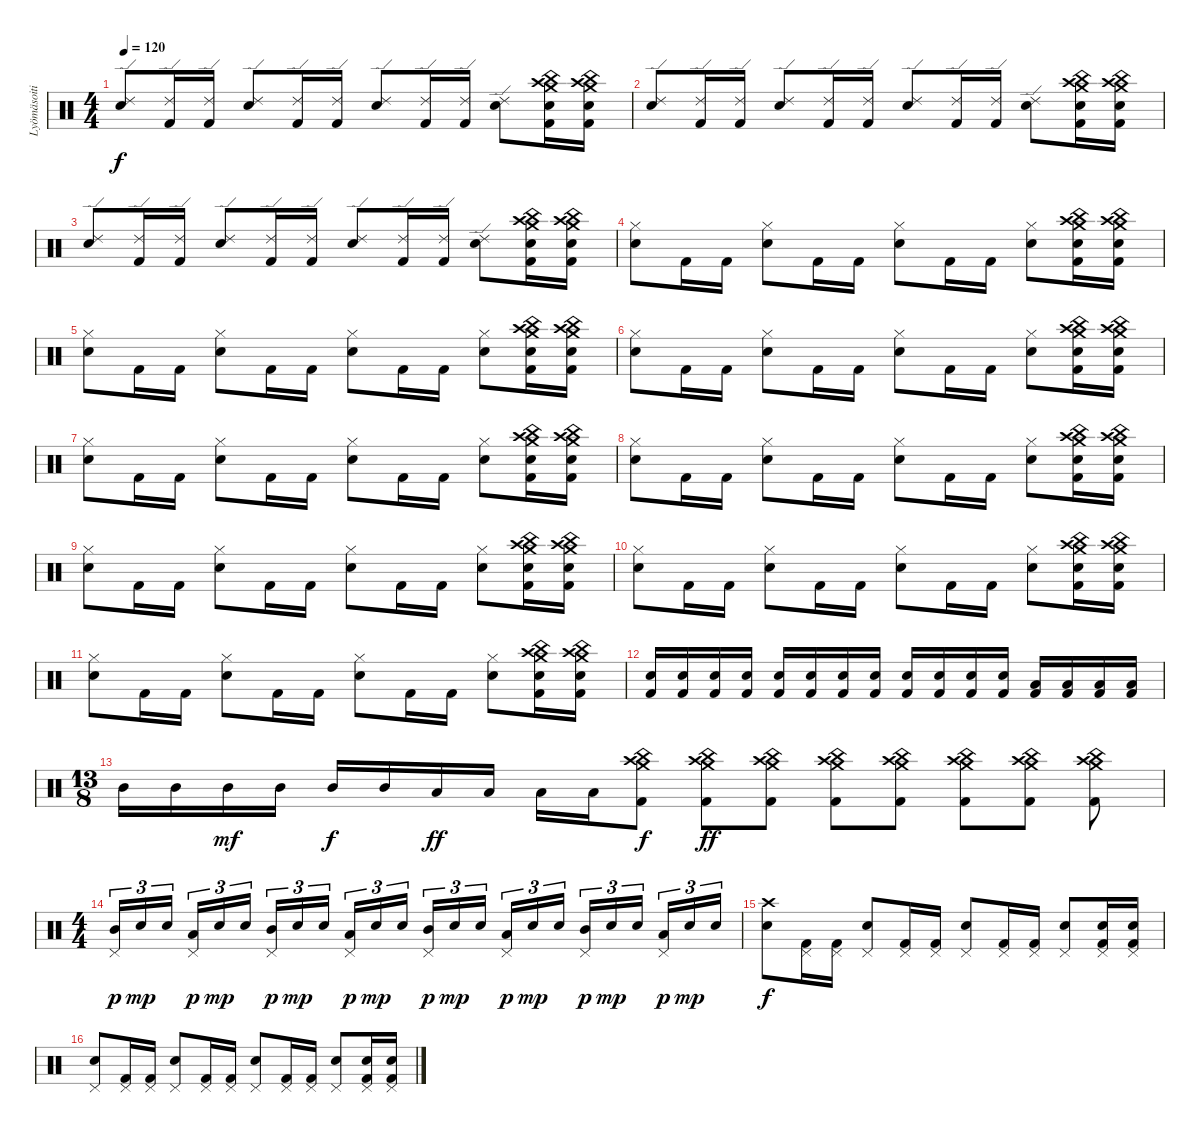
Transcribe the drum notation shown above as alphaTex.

\track ("Lyömäsoitin" "Lyömäsoiti") {instrument percussion}
\staff {score}
\articulation defaults
\ts (4 4)
\tempo 120
\clef neutral
\ks c
("Ride (edge) 2" "Snare (hit) 2").8{dy f} ("Ride (edge) 2" "Kick (hit) 2").16 ("Ride (edge) 2" "Kick (hit) 2").16 ("Ride (edge) 2" "Snare (hit) 2").8 ("Ride (edge) 2" "Kick (hit) 2").16 ("Ride (edge) 2" "Kick (hit) 2").16 ("Ride (edge) 2" "Snare (hit) 2").8 ("Ride (edge) 2" "Kick (hit) 2").16 ("Ride (edge) 2" "Kick (hit) 2").16 ("Ride (edge) 2" "Snare (hit) 2").8 ("Crash high (hit)" "Crash medium (hit)" "China (hit)" "Snare (hit) 2" "Kick (hit) 2").16 ("Crash high (hit)" "Crash medium (hit)" "China (hit)" "Snare (hit) 2" "Kick (hit) 2").16 |
("Ride (edge) 2" "Snare (hit) 2").8 ("Ride (edge) 2" "Kick (hit) 2").16 ("Ride (edge) 2" "Kick (hit) 2").16 ("Ride (edge) 2" "Snare (hit) 2").8 ("Ride (edge) 2" "Kick (hit) 2").16 ("Ride (edge) 2" "Kick (hit) 2").16 ("Ride (edge) 2" "Snare (hit) 2").8 ("Ride (edge) 2" "Kick (hit) 2").16 ("Ride (edge) 2" "Kick (hit) 2").16 ("Ride (edge) 2" "Snare (hit) 2").8 ("Crash high (hit)" "Crash medium (hit)" "China (hit)" "Snare (hit) 2" "Kick (hit) 2").16 ("Crash high (hit)" "Crash medium (hit)" "China (hit)" "Snare (hit) 2" "Kick (hit) 2").16 |
("Ride (edge) 2" "Snare (hit) 2").8 ("Ride (edge) 2" "Kick (hit) 2").16 ("Ride (edge) 2" "Kick (hit) 2").16 ("Ride (edge) 2" "Snare (hit) 2").8 ("Ride (edge) 2" "Kick (hit) 2").16 ("Ride (edge) 2" "Kick (hit) 2").16 ("Ride (edge) 2" "Snare (hit) 2").8 ("Ride (edge) 2" "Kick (hit) 2").16 ("Ride (edge) 2" "Kick (hit) 2").16 ("Ride (edge) 2" "Snare (hit) 2").8 ("Crash high (hit)" "Crash medium (hit)" "China (hit)" "Snare (hit) 2" "Kick (hit) 2").16 ("Crash high (hit)" "Crash medium (hit)" "China (hit)" "Snare (hit) 2" "Kick (hit) 2").16 |
("Hi-Hat (closed)" "Snare (hit) 2").8 "Kick (hit) 2".16 "Kick (hit) 2".16 ("Hi-Hat (closed)" "Snare (hit) 2").8 "Kick (hit) 2".16 "Kick (hit) 2".16 ("Hi-Hat (closed)" "Snare (hit) 2").8 "Kick (hit) 2".16 "Kick (hit) 2".16 ("Hi-Hat (closed)" "Snare (hit) 2").8 ("Crash high (hit)" "Crash medium (hit)" "China (hit)" "Snare (hit) 2" "Kick (hit) 2").16 ("Crash high (hit)" "Crash medium (hit)" "China (hit)" "Snare (hit) 2" "Kick (hit) 2").16 |
("Hi-Hat (closed)" "Snare (hit) 2").8 "Kick (hit) 2".16 "Kick (hit) 2".16 ("Hi-Hat (closed)" "Snare (hit) 2").8 "Kick (hit) 2".16 "Kick (hit) 2".16 ("Hi-Hat (closed)" "Snare (hit) 2").8 "Kick (hit) 2".16 "Kick (hit) 2".16 ("Hi-Hat (closed)" "Snare (hit) 2").8 ("Crash high (hit)" "Crash medium (hit)" "China (hit)" "Snare (hit) 2" "Kick (hit) 2").16 ("Crash high (hit)" "Crash medium (hit)" "China (hit)" "Snare (hit) 2" "Kick (hit) 2").16 |
("Hi-Hat (closed)" "Snare (hit) 2").8 "Kick (hit) 2".16 "Kick (hit) 2".16 ("Hi-Hat (closed)" "Snare (hit) 2").8 "Kick (hit) 2".16 "Kick (hit) 2".16 ("Hi-Hat (closed)" "Snare (hit) 2").8 "Kick (hit) 2".16 "Kick (hit) 2".16 ("Hi-Hat (closed)" "Snare (hit) 2").8 ("Crash high (hit)" "Crash medium (hit)" "China (hit)" "Snare (hit) 2" "Kick (hit) 2").16 ("Crash high (hit)" "Crash medium (hit)" "China (hit)" "Snare (hit) 2" "Kick (hit) 2").16 |
("Hi-Hat (closed)" "Snare (hit) 2").8 "Kick (hit) 2".16 "Kick (hit) 2".16 ("Hi-Hat (closed)" "Snare (hit) 2").8 "Kick (hit) 2".16 "Kick (hit) 2".16 ("Hi-Hat (closed)" "Snare (hit) 2").8 "Kick (hit) 2".16 "Kick (hit) 2".16 ("Hi-Hat (closed)" "Snare (hit) 2").8 ("Crash high (hit)" "Crash medium (hit)" "China (hit)" "Snare (hit) 2" "Kick (hit) 2").16 ("Crash high (hit)" "Crash medium (hit)" "China (hit)" "Snare (hit) 2" "Kick (hit) 2").16 |
("Hi-Hat (closed)" "Snare (hit) 2").8 "Kick (hit) 2".16 "Kick (hit) 2".16 ("Hi-Hat (closed)" "Snare (hit) 2").8 "Kick (hit) 2".16 "Kick (hit) 2".16 ("Hi-Hat (closed)" "Snare (hit) 2").8 "Kick (hit) 2".16 "Kick (hit) 2".16 ("Hi-Hat (closed)" "Snare (hit) 2").8 ("Crash high (hit)" "Crash medium (hit)" "China (hit)" "Snare (hit) 2" "Kick (hit) 2").16 ("Crash high (hit)" "Crash medium (hit)" "China (hit)" "Snare (hit) 2" "Kick (hit) 2").16 |
("Hi-Hat (closed)" "Snare (hit) 2").8 "Kick (hit) 2".16 "Kick (hit) 2".16 ("Hi-Hat (closed)" "Snare (hit) 2").8 "Kick (hit) 2".16 "Kick (hit) 2".16 ("Hi-Hat (closed)" "Snare (hit) 2").8 "Kick (hit) 2".16 "Kick (hit) 2".16 ("Hi-Hat (closed)" "Snare (hit) 2").8 ("Crash high (hit)" "Crash medium (hit)" "China (hit)" "Snare (hit) 2" "Kick (hit) 2").16 ("Crash high (hit)" "Crash medium (hit)" "China (hit)" "Snare (hit) 2" "Kick (hit) 2").16 |
("Hi-Hat (closed)" "Snare (hit) 2").8 "Kick (hit) 2".16 "Kick (hit) 2".16 ("Hi-Hat (closed)" "Snare (hit) 2").8 "Kick (hit) 2".16 "Kick (hit) 2".16 ("Hi-Hat (closed)" "Snare (hit) 2").8 "Kick (hit) 2".16 "Kick (hit) 2".16 ("Hi-Hat (closed)" "Snare (hit) 2").8 ("Crash high (hit)" "Crash medium (hit)" "China (hit)" "Snare (hit) 2" "Kick (hit) 2").16 ("Crash high (hit)" "Crash medium (hit)" "China (hit)" "Snare (hit) 2" "Kick (hit) 2").16 |
("Hi-Hat (closed)" "Snare (hit) 2").8 "Kick (hit) 2".16 "Kick (hit) 2".16 ("Hi-Hat (closed)" "Snare (hit) 2").8 "Kick (hit) 2".16 "Kick (hit) 2".16 ("Hi-Hat (closed)" "Snare (hit) 2").8 "Kick (hit) 2".16 "Kick (hit) 2".16 ("Hi-Hat (closed)" "Snare (hit) 2").8 ("Crash high (hit)" "Crash medium (hit)" "China (hit)" "Snare (hit) 2" "Kick (hit) 2").16 ("Crash high (hit)" "Crash medium (hit)" "China (hit)" "Snare (hit) 2" "Kick (hit) 2").16 |
("Snare (hit) 2" "Kick (hit) 2").16 ("Snare (hit) 2" "Kick (hit) 2").16 ("Snare (hit) 2" "Kick (hit) 2").16 ("Snare (hit) 2" "Kick (hit) 2").16 ("Snare (hit) 2" "Kick (hit) 2").16 ("Snare (hit) 2" "Kick (hit) 2").16 ("Snare (hit) 2" "Kick (hit) 2").16 ("Snare (hit) 2" "Kick (hit) 2").16 ("Snare (hit) 2" "Kick (hit) 2").16 ("Snare (hit) 2" "Kick (hit) 2").16 ("Snare (hit) 2" "Kick (hit) 2").16 ("Snare (hit) 2" "Kick (hit) 2").16 ("Low Floor Tom (hit)" "Kick (hit) 2").16 ("Low Floor Tom (hit)" "Kick (hit) 2").16 ("Low Floor Tom (hit)" "Kick (hit) 2").16 ("Low Floor Tom (hit)" "Kick (hit) 2").16 |
\ts (13 8)
"Mid Tom (hit)".16 "Mid Tom (hit)".16 "Mid Tom (hit)".16{dy mf} "Mid Tom (hit)".16 "Mid Tom (hit)".16{dy f} "Mid Tom (hit)".16 "Low Tom (hit)".16{dy ff} "Low Tom (hit)".16 "Low Tom (hit)".16 "Low Tom (hit)".16 ("China (hit)" "Kick (hit) 2" "Crash medium (hit)" "Crash high (hit)").8{dy f} ("Kick (hit) 2" "China (hit)" "Crash medium (hit)" "Crash high (hit)").8{dy ff} ("Kick (hit) 2" "China (hit)" "Crash medium (hit)" "Crash high (hit)").8 ("Kick (hit) 2" "China (hit)" "Crash medium (hit)" "Crash high (hit)").8 ("Kick (hit) 2" "China (hit)" "Crash medium (hit)" "Crash high (hit)").8 ("Kick (hit) 2" "China (hit)" "Crash medium (hit)" "Crash high (hit)").8 ("Kick (hit) 2" "China (hit)" "Crash medium (hit)" "Crash high (hit)").8 ("Kick (hit) 2" "China (hit)" "Crash medium (hit)" "Crash high (hit)").8 |
\ts (4 4)
("Pedal Hi-Hat (hit)" "Mid Tom (hit)").16{tu (3 2) dy p} "Snare (hit) 2".16{tu (3 2) dy mp} "Snare (hit) 2".16{tu (3 2)} ("Pedal Hi-Hat (hit)" "Low Tom (hit)").16{tu (3 2) dy p} "Snare (hit) 2".16{tu (3 2) dy mp} "Snare (hit) 2".16{tu (3 2)} ("Pedal Hi-Hat (hit)" "Mid Tom (hit)").16{tu (3 2) dy p} "Snare (hit) 2".16{tu (3 2) dy mp} "Snare (hit) 2".16{tu (3 2)} ("Pedal Hi-Hat (hit)" "Low Tom (hit)").16{tu (3 2) dy p} "Snare (hit) 2".16{tu (3 2) dy mp} "Snare (hit) 2".16{tu (3 2)} ("Pedal Hi-Hat (hit)" "Mid Tom (hit)").16{tu (3 2) dy p} "Snare (hit) 2".16{tu (3 2) dy mp} "Snare (hit) 2".16{tu (3 2)} ("Pedal Hi-Hat (hit)" "Low Tom (hit)").16{tu (3 2) dy p} "Snare (hit) 2".16{tu (3 2) dy mp} "Snare (hit) 2".16{tu (3 2)} ("Pedal Hi-Hat (hit)" "Mid Tom (hit)").16{tu (3 2) dy p} "Snare (hit) 2".16{tu (3 2) dy mp} "Snare (hit) 2".16{tu (3 2)} ("Pedal Hi-Hat (hit)" "Low Tom (hit)").16{tu (3 2) dy p} "Snare (hit) 2".16{tu (3 2) dy mp} "Snare (hit) 2".16{tu (3 2)} |
("Crash high (hit)" "Snare (hit) 2").8{dy f} ("Pedal Hi-Hat (hit)" "Kick (hit) 2").16 ("Pedal Hi-Hat (hit)" "Kick (hit) 2").16 ("Pedal Hi-Hat (hit)" "Snare (hit) 2").8 ("Pedal Hi-Hat (hit)" "Kick (hit) 2").16 ("Pedal Hi-Hat (hit)" "Kick (hit) 2").16 ("Pedal Hi-Hat (hit)" "Snare (hit) 2").8 ("Pedal Hi-Hat (hit)" "Kick (hit) 2").16 ("Pedal Hi-Hat (hit)" "Kick (hit) 2").16 ("Pedal Hi-Hat (hit)" "Snare (hit) 2").8 ("Pedal Hi-Hat (hit)" "Snare (hit) 2" "Kick (hit) 2").16 ("Pedal Hi-Hat (hit)" "Snare (hit) 2" "Kick (hit) 2").16 |
("Pedal Hi-Hat (hit)" "Snare (hit) 2").8 ("Pedal Hi-Hat (hit)" "Kick (hit) 2").16 ("Pedal Hi-Hat (hit)" "Kick (hit) 2").16 ("Pedal Hi-Hat (hit)" "Snare (hit) 2").8 ("Pedal Hi-Hat (hit)" "Kick (hit) 2").16 ("Pedal Hi-Hat (hit)" "Kick (hit) 2").16 ("Pedal Hi-Hat (hit)" "Snare (hit) 2").8 ("Pedal Hi-Hat (hit)" "Kick (hit) 2").16 ("Pedal Hi-Hat (hit)" "Kick (hit) 2").16 ("Pedal Hi-Hat (hit)" "Snare (hit) 2").8 ("Pedal Hi-Hat (hit)" "Snare (hit) 2" "Kick (hit) 2").16 ("Pedal Hi-Hat (hit)" "Snare (hit) 2" "Kick (hit) 2").16
